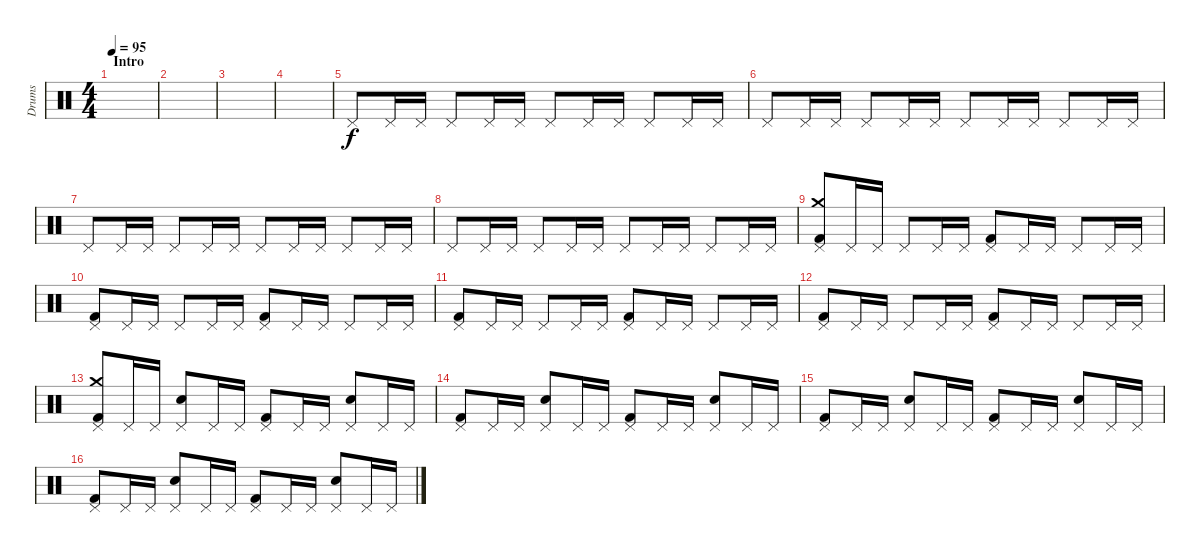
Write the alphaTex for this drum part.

\track ("Drums" "Drums") {instrument percussion}
\staff {score}
\articulation defaults
\ts (4 4)
\section ("" "Intro")
\tempo 95
\clef neutral
\ks c
|
|
|
|
"Pedal Hi-Hat (hit)".8 "Pedal Hi-Hat (hit)".16 "Pedal Hi-Hat (hit)".16 "Pedal Hi-Hat (hit)".8 "Pedal Hi-Hat (hit)".16 "Pedal Hi-Hat (hit)".16 "Pedal Hi-Hat (hit)".8 "Pedal Hi-Hat (hit)".16 "Pedal Hi-Hat (hit)".16 "Pedal Hi-Hat (hit)".8 "Pedal Hi-Hat (hit)".16 "Pedal Hi-Hat (hit)".16 |
"Pedal Hi-Hat (hit)".8 "Pedal Hi-Hat (hit)".16 "Pedal Hi-Hat (hit)".16 "Pedal Hi-Hat (hit)".8 "Pedal Hi-Hat (hit)".16 "Pedal Hi-Hat (hit)".16 "Pedal Hi-Hat (hit)".8 "Pedal Hi-Hat (hit)".16 "Pedal Hi-Hat (hit)".16 "Pedal Hi-Hat (hit)".8 "Pedal Hi-Hat (hit)".16 "Pedal Hi-Hat (hit)".16 |
"Pedal Hi-Hat (hit)".8 "Pedal Hi-Hat (hit)".16 "Pedal Hi-Hat (hit)".16 "Pedal Hi-Hat (hit)".8 "Pedal Hi-Hat (hit)".16 "Pedal Hi-Hat (hit)".16 "Pedal Hi-Hat (hit)".8 "Pedal Hi-Hat (hit)".16 "Pedal Hi-Hat (hit)".16 "Pedal Hi-Hat (hit)".8 "Pedal Hi-Hat (hit)".16 "Pedal Hi-Hat (hit)".16 |
"Pedal Hi-Hat (hit)".8 "Pedal Hi-Hat (hit)".16 "Pedal Hi-Hat (hit)".16 "Pedal Hi-Hat (hit)".8 "Pedal Hi-Hat (hit)".16 "Pedal Hi-Hat (hit)".16 "Pedal Hi-Hat (hit)".8 "Pedal Hi-Hat (hit)".16 "Pedal Hi-Hat (hit)".16 "Pedal Hi-Hat (hit)".8 "Pedal Hi-Hat (hit)".16 "Pedal Hi-Hat (hit)".16 |
("Crash medium (hit)" "Pedal Hi-Hat (hit)" "Kick (hit) 2").8 "Pedal Hi-Hat (hit)".16 "Pedal Hi-Hat (hit)".16 "Pedal Hi-Hat (hit)".8 "Pedal Hi-Hat (hit)".16 "Pedal Hi-Hat (hit)".16 ("Pedal Hi-Hat (hit)" "Kick (hit) 2").8 "Pedal Hi-Hat (hit)".16 "Pedal Hi-Hat (hit)".16 "Pedal Hi-Hat (hit)".8 "Pedal Hi-Hat (hit)".16 "Pedal Hi-Hat (hit)".16 |
("Pedal Hi-Hat (hit)" "Kick (hit) 2").8 "Pedal Hi-Hat (hit)".16 "Pedal Hi-Hat (hit)".16 "Pedal Hi-Hat (hit)".8 "Pedal Hi-Hat (hit)".16 "Pedal Hi-Hat (hit)".16 ("Pedal Hi-Hat (hit)" "Kick (hit) 2").8 "Pedal Hi-Hat (hit)".16 "Pedal Hi-Hat (hit)".16 "Pedal Hi-Hat (hit)".8 "Pedal Hi-Hat (hit)".16 "Pedal Hi-Hat (hit)".16 |
("Pedal Hi-Hat (hit)" "Kick (hit) 2").8 "Pedal Hi-Hat (hit)".16 "Pedal Hi-Hat (hit)".16 "Pedal Hi-Hat (hit)".8 "Pedal Hi-Hat (hit)".16 "Pedal Hi-Hat (hit)".16 ("Pedal Hi-Hat (hit)" "Kick (hit) 2").8 "Pedal Hi-Hat (hit)".16 "Pedal Hi-Hat (hit)".16 "Pedal Hi-Hat (hit)".8 "Pedal Hi-Hat (hit)".16 "Pedal Hi-Hat (hit)".16 |
("Pedal Hi-Hat (hit)" "Kick (hit) 2").8 "Pedal Hi-Hat (hit)".16 "Pedal Hi-Hat (hit)".16 "Pedal Hi-Hat (hit)".8 "Pedal Hi-Hat (hit)".16 "Pedal Hi-Hat (hit)".16 ("Pedal Hi-Hat (hit)" "Kick (hit) 2").8 "Pedal Hi-Hat (hit)".16 "Pedal Hi-Hat (hit)".16 "Pedal Hi-Hat (hit)".8 "Pedal Hi-Hat (hit)".16 "Pedal Hi-Hat (hit)".16 |
("Crash medium (hit)" "Pedal Hi-Hat (hit)" "Kick (hit) 2").8 "Pedal Hi-Hat (hit)".16 "Pedal Hi-Hat (hit)".16 ("Pedal Hi-Hat (hit)" "Snare (hit) 2").8 "Pedal Hi-Hat (hit)".16 "Pedal Hi-Hat (hit)".16 ("Pedal Hi-Hat (hit)" "Kick (hit) 2").8 "Pedal Hi-Hat (hit)".16 "Pedal Hi-Hat (hit)".16 ("Pedal Hi-Hat (hit)" "Snare (hit) 2").8 "Pedal Hi-Hat (hit)".16 "Pedal Hi-Hat (hit)".16 |
("Pedal Hi-Hat (hit)" "Kick (hit) 2").8 "Pedal Hi-Hat (hit)".16 "Pedal Hi-Hat (hit)".16 ("Pedal Hi-Hat (hit)" "Snare (hit) 2").8 "Pedal Hi-Hat (hit)".16 "Pedal Hi-Hat (hit)".16 ("Pedal Hi-Hat (hit)" "Kick (hit) 2").8 "Pedal Hi-Hat (hit)".16 "Pedal Hi-Hat (hit)".16 ("Pedal Hi-Hat (hit)" "Snare (hit) 2").8 "Pedal Hi-Hat (hit)".16 "Pedal Hi-Hat (hit)".16 |
("Pedal Hi-Hat (hit)" "Kick (hit) 2").8 "Pedal Hi-Hat (hit)".16 "Pedal Hi-Hat (hit)".16 ("Pedal Hi-Hat (hit)" "Snare (hit) 2").8 "Pedal Hi-Hat (hit)".16 "Pedal Hi-Hat (hit)".16 ("Pedal Hi-Hat (hit)" "Kick (hit) 2").8 "Pedal Hi-Hat (hit)".16 "Pedal Hi-Hat (hit)".16 ("Pedal Hi-Hat (hit)" "Snare (hit) 2").8 "Pedal Hi-Hat (hit)".16 "Pedal Hi-Hat (hit)".16 |
("Pedal Hi-Hat (hit)" "Kick (hit) 2").8 "Pedal Hi-Hat (hit)".16 "Pedal Hi-Hat (hit)".16 ("Pedal Hi-Hat (hit)" "Snare (hit) 2").8 "Pedal Hi-Hat (hit)".16 "Pedal Hi-Hat (hit)".16 ("Pedal Hi-Hat (hit)" "Kick (hit) 2").8 "Pedal Hi-Hat (hit)".16 "Pedal Hi-Hat (hit)".16 ("Pedal Hi-Hat (hit)" "Snare (hit) 2").8 "Pedal Hi-Hat (hit)".16 "Pedal Hi-Hat (hit)".16
